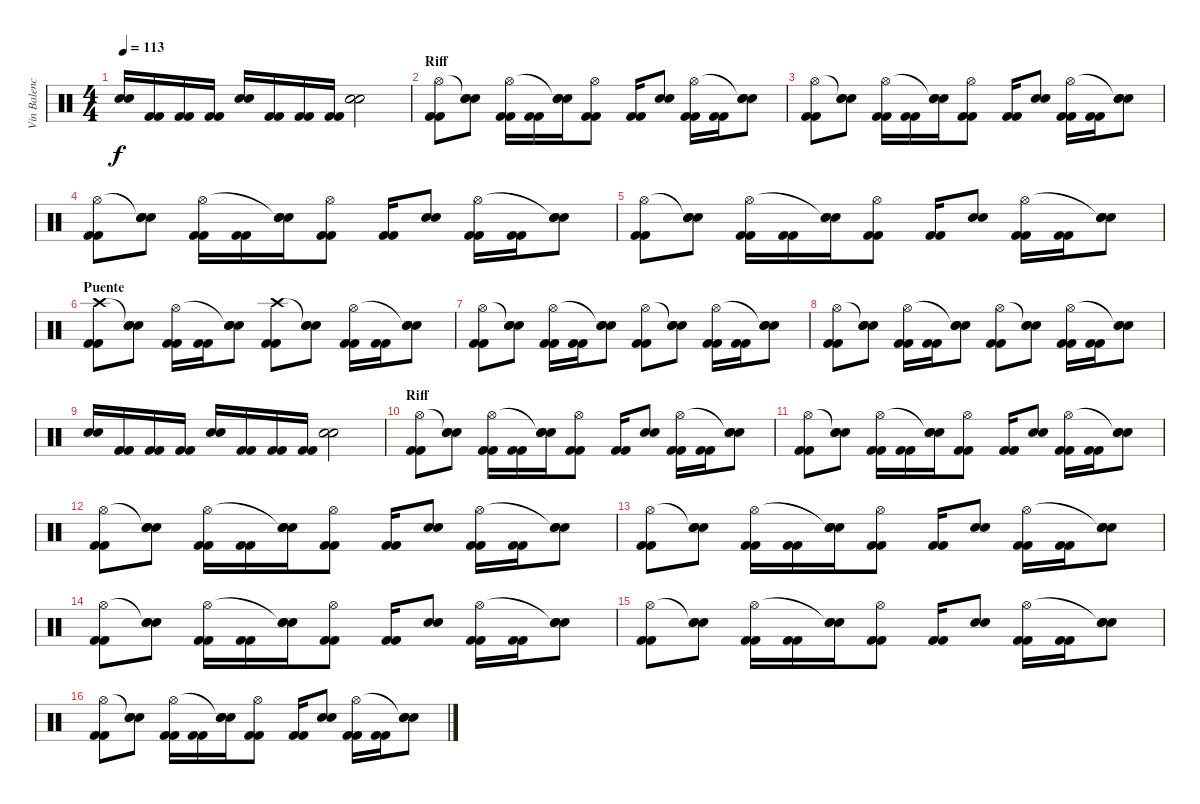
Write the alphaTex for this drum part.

\track ("Vin Balencia (bateria)" "Vin Balenc") {instrument percussion}
\staff {score}
\articulation defaults
\ts (4 4)
\tempo 113
\clef neutral
\ks c
("Electric Snare (hit)" "Electric Snare (hit)").16{dy f} ("Kick (hit) 2" "Kick (hit) 2").16 ("Kick (hit) 2" "Kick (hit) 2").16 ("Kick (hit) 2" "Kick (hit) 2").16 ("Electric Snare (hit)" "Electric Snare (hit)").16 ("Kick (hit) 2" "Kick (hit) 2").16 ("Kick (hit) 2" "Kick (hit) 2").16 ("Kick (hit) 2" "Kick (hit) 2").16 ("Electric Snare (hit)" "Electric Snare (hit)").2 |
\section ("" "Riff")
("Kick (hit) 2" "Kick (hit) 2" "Hi-Hat (open)").8 ("Snare (hit) 2" "Snare (hit) 2" "Snare (hit)"{t}).8 ("Kick (hit) 2" "Kick (hit) 2" "Hi-Hat (open)").16 ("Kick (hit) 2" "Kick (hit) 2").16 ("Snare (hit) 2" "Snare (hit) 2" "Snare (hit)"{t}).16 ("Kick (hit) 2" "Kick (hit) 2" "Hi-Hat (open)").8 ("Kick (hit) 2" "Kick (hit) 2").16 ("Snare (hit) 2" "Snare (hit) 2").8 ("Kick (hit) 2" "Kick (hit) 2" "Hi-Hat (open)").16 ("Kick (hit) 2" "Kick (hit) 2").16 ("Snare (hit) 2" "Snare (hit) 2" "Snare (hit)"{t}).8 |
("Kick (hit) 2" "Kick (hit) 2" "Hi-Hat (open)").8 ("Snare (hit) 2" "Snare (hit) 2" "Snare (hit)"{t}).8 ("Kick (hit) 2" "Kick (hit) 2" "Hi-Hat (open)").16 ("Kick (hit) 2" "Kick (hit) 2").16 ("Snare (hit) 2" "Snare (hit) 2" "Snare (hit)"{t}).16 ("Kick (hit) 2" "Kick (hit) 2" "Hi-Hat (open)").8 ("Kick (hit) 2" "Kick (hit) 2").16 ("Snare (hit) 2" "Snare (hit) 2").8 ("Kick (hit) 2" "Kick (hit) 2" "Hi-Hat (open)").16 ("Kick (hit) 2" "Kick (hit) 2").16 ("Snare (hit) 2" "Snare (hit) 2" "Snare (hit)"{t}).8 |
("Kick (hit) 2" "Kick (hit) 2" "Hi-Hat (open)").8 ("Snare (hit) 2" "Snare (hit) 2" "Snare (hit)"{t}).8 ("Kick (hit) 2" "Kick (hit) 2" "Hi-Hat (open)").16 ("Kick (hit) 2" "Kick (hit) 2").16 ("Snare (hit) 2" "Snare (hit) 2" "Snare (hit)"{t}).16 ("Kick (hit) 2" "Kick (hit) 2" "Hi-Hat (open)").8 ("Kick (hit) 2" "Kick (hit) 2").16 ("Snare (hit) 2" "Snare (hit) 2").8 ("Kick (hit) 2" "Kick (hit) 2" "Hi-Hat (open)").16 ("Kick (hit) 2" "Kick (hit) 2").16 ("Snare (hit) 2" "Snare (hit) 2" "Snare (hit)"{t}).8 |
("Kick (hit) 2" "Kick (hit) 2" "Hi-Hat (open)").8 ("Snare (hit) 2" "Snare (hit) 2" "Snare (hit)"{t}).8 ("Kick (hit) 2" "Kick (hit) 2" "Hi-Hat (open)").16 ("Kick (hit) 2" "Kick (hit) 2").16 ("Snare (hit) 2" "Snare (hit) 2" "Snare (hit)"{t}).16 ("Kick (hit) 2" "Kick (hit) 2" "Hi-Hat (open)").8 ("Kick (hit) 2" "Kick (hit) 2").16 ("Snare (hit) 2" "Snare (hit) 2").8 ("Kick (hit) 2" "Kick (hit) 2" "Hi-Hat (open)").16 ("Kick (hit) 2" "Kick (hit) 2").16 ("Snare (hit) 2" "Snare (hit) 2" "Snare (hit)"{t}).8 |
\section ("" "Puente")
("Kick (hit) 2" "Kick (hit) 2" "Crash high (hit)").8 ("Snare (hit) 2" "Snare (hit) 2" "Snare (hit)"{t}).8 ("Kick (hit) 2" "Kick (hit) 2" "Hi-Hat (open)").16 ("Kick (hit) 2" "Kick (hit) 2").16 ("Snare (hit) 2" "Snare (hit) 2" "Snare (hit)"{t}).8 ("Kick (hit) 2" "Kick (hit) 2" "Crash high (hit)").8 ("Snare (hit) 2" "Snare (hit) 2" "Snare (hit)"{t}).8 ("Kick (hit) 2" "Kick (hit) 2" "Hi-Hat (open)").16 ("Kick (hit) 2" "Kick (hit) 2").16 ("Snare (hit) 2" "Snare (hit) 2" "Snare (hit)"{t}).8 |
("Kick (hit) 2" "Kick (hit) 2" "Hi-Hat (open)").8 ("Snare (hit) 2" "Snare (hit) 2" "Snare (hit)"{t}).8 ("Kick (hit) 2" "Kick (hit) 2" "Hi-Hat (open)").16 ("Kick (hit) 2" "Kick (hit) 2").16 ("Snare (hit) 2" "Snare (hit) 2" "Snare (hit)"{t}).8 ("Kick (hit) 2" "Kick (hit) 2" "Hi-Hat (open)").8 ("Snare (hit) 2" "Snare (hit) 2" "Snare (hit)"{t}).8 ("Kick (hit) 2" "Kick (hit) 2" "Hi-Hat (open)").16 ("Kick (hit) 2" "Kick (hit) 2").16 ("Snare (hit) 2" "Snare (hit) 2" "Snare (hit)"{t}).8 |
("Kick (hit) 2" "Kick (hit) 2" "Hi-Hat (open)").8 ("Snare (hit) 2" "Snare (hit) 2" "Snare (hit)"{t}).8 ("Kick (hit) 2" "Kick (hit) 2" "Hi-Hat (open)").16 ("Kick (hit) 2" "Kick (hit) 2").16 ("Snare (hit) 2" "Snare (hit) 2" "Snare (hit)"{t}).8 ("Kick (hit) 2" "Kick (hit) 2" "Hi-Hat (open)").8 ("Snare (hit) 2" "Snare (hit) 2" "Snare (hit)"{t}).8 ("Kick (hit) 2" "Kick (hit) 2" "Hi-Hat (open)").16 ("Kick (hit) 2" "Kick (hit) 2").16 ("Snare (hit) 2" "Snare (hit) 2" "Snare (hit)"{t}).8 |
("Electric Snare (hit)" "Electric Snare (hit)").16 ("Kick (hit) 2" "Kick (hit) 2").16 ("Kick (hit) 2" "Kick (hit) 2").16 ("Kick (hit) 2" "Kick (hit) 2").16 ("Electric Snare (hit)" "Electric Snare (hit)").16 ("Kick (hit) 2" "Kick (hit) 2").16 ("Kick (hit) 2" "Kick (hit) 2").16 ("Kick (hit) 2" "Kick (hit) 2").16 ("Electric Snare (hit)" "Electric Snare (hit)").2 |
\section ("" "Riff")
("Kick (hit) 2" "Kick (hit) 2" "Hi-Hat (open)").8 ("Snare (hit) 2" "Snare (hit) 2" "Snare (hit)"{t}).8 ("Kick (hit) 2" "Kick (hit) 2" "Hi-Hat (open)").16 ("Kick (hit) 2" "Kick (hit) 2").16 ("Snare (hit) 2" "Snare (hit) 2" "Snare (hit)"{t}).16 ("Kick (hit) 2" "Kick (hit) 2" "Hi-Hat (open)").8 ("Kick (hit) 2" "Kick (hit) 2").16 ("Snare (hit) 2" "Snare (hit) 2").8 ("Kick (hit) 2" "Kick (hit) 2" "Hi-Hat (open)").16 ("Kick (hit) 2" "Kick (hit) 2").16 ("Snare (hit) 2" "Snare (hit) 2" "Snare (hit)"{t}).8 |
("Kick (hit) 2" "Kick (hit) 2" "Hi-Hat (open)").8 ("Snare (hit) 2" "Snare (hit) 2" "Snare (hit)"{t}).8 ("Kick (hit) 2" "Kick (hit) 2" "Hi-Hat (open)").16 ("Kick (hit) 2" "Kick (hit) 2").16 ("Snare (hit) 2" "Snare (hit) 2" "Snare (hit)"{t}).16 ("Kick (hit) 2" "Kick (hit) 2" "Hi-Hat (open)").8 ("Kick (hit) 2" "Kick (hit) 2").16 ("Snare (hit) 2" "Snare (hit) 2").8 ("Kick (hit) 2" "Kick (hit) 2" "Hi-Hat (open)").16 ("Kick (hit) 2" "Kick (hit) 2").16 ("Snare (hit) 2" "Snare (hit) 2" "Snare (hit)"{t}).8 |
("Kick (hit) 2" "Kick (hit) 2" "Hi-Hat (open)").8 ("Snare (hit) 2" "Snare (hit) 2" "Snare (hit)"{t}).8 ("Kick (hit) 2" "Kick (hit) 2" "Hi-Hat (open)").16 ("Kick (hit) 2" "Kick (hit) 2").16 ("Snare (hit) 2" "Snare (hit) 2" "Snare (hit)"{t}).16 ("Kick (hit) 2" "Kick (hit) 2" "Hi-Hat (open)").8 ("Kick (hit) 2" "Kick (hit) 2").16 ("Snare (hit) 2" "Snare (hit) 2").8 ("Kick (hit) 2" "Kick (hit) 2" "Hi-Hat (open)").16 ("Kick (hit) 2" "Kick (hit) 2").16 ("Snare (hit) 2" "Snare (hit) 2" "Snare (hit)"{t}).8 |
("Kick (hit) 2" "Kick (hit) 2" "Hi-Hat (open)").8 ("Snare (hit) 2" "Snare (hit) 2" "Snare (hit)"{t}).8 ("Kick (hit) 2" "Kick (hit) 2" "Hi-Hat (open)").16 ("Kick (hit) 2" "Kick (hit) 2").16 ("Snare (hit) 2" "Snare (hit) 2" "Snare (hit)"{t}).16 ("Kick (hit) 2" "Kick (hit) 2" "Hi-Hat (open)").8 ("Kick (hit) 2" "Kick (hit) 2").16 ("Snare (hit) 2" "Snare (hit) 2").8 ("Kick (hit) 2" "Kick (hit) 2" "Hi-Hat (open)").16 ("Kick (hit) 2" "Kick (hit) 2").16 ("Snare (hit) 2" "Snare (hit) 2" "Snare (hit)"{t}).8 |
("Kick (hit) 2" "Kick (hit) 2" "Hi-Hat (open)").8 ("Snare (hit) 2" "Snare (hit) 2" "Snare (hit)"{t}).8 ("Kick (hit) 2" "Kick (hit) 2" "Hi-Hat (open)").16 ("Kick (hit) 2" "Kick (hit) 2").16 ("Snare (hit) 2" "Snare (hit) 2" "Snare (hit)"{t}).16 ("Kick (hit) 2" "Kick (hit) 2" "Hi-Hat (open)").8 ("Kick (hit) 2" "Kick (hit) 2").16 ("Snare (hit) 2" "Snare (hit) 2").8 ("Kick (hit) 2" "Kick (hit) 2" "Hi-Hat (open)").16 ("Kick (hit) 2" "Kick (hit) 2").16 ("Snare (hit) 2" "Snare (hit) 2" "Snare (hit)"{t}).8 |
("Kick (hit) 2" "Kick (hit) 2" "Hi-Hat (open)").8 ("Snare (hit) 2" "Snare (hit) 2" "Snare (hit)"{t}).8 ("Kick (hit) 2" "Kick (hit) 2" "Hi-Hat (open)").16 ("Kick (hit) 2" "Kick (hit) 2").16 ("Snare (hit) 2" "Snare (hit) 2" "Snare (hit)"{t}).16 ("Kick (hit) 2" "Kick (hit) 2" "Hi-Hat (open)").8 ("Kick (hit) 2" "Kick (hit) 2").16 ("Snare (hit) 2" "Snare (hit) 2").8 ("Kick (hit) 2" "Kick (hit) 2" "Hi-Hat (open)").16 ("Kick (hit) 2" "Kick (hit) 2").16 ("Snare (hit) 2" "Snare (hit) 2" "Snare (hit)"{t}).8 |
("Kick (hit) 2" "Kick (hit) 2" "Hi-Hat (open)").8 ("Snare (hit) 2" "Snare (hit) 2" "Snare (hit)"{t}).8 ("Kick (hit) 2" "Kick (hit) 2" "Hi-Hat (open)").16 ("Kick (hit) 2" "Kick (hit) 2").16 ("Snare (hit) 2" "Snare (hit) 2" "Snare (hit)"{t}).16 ("Kick (hit) 2" "Kick (hit) 2" "Hi-Hat (open)").8 ("Kick (hit) 2" "Kick (hit) 2").16 ("Snare (hit) 2" "Snare (hit) 2").8 ("Kick (hit) 2" "Kick (hit) 2" "Hi-Hat (open)").16 ("Kick (hit) 2" "Kick (hit) 2").16 ("Snare (hit) 2" "Snare (hit) 2" "Snare (hit)"{t}).8
